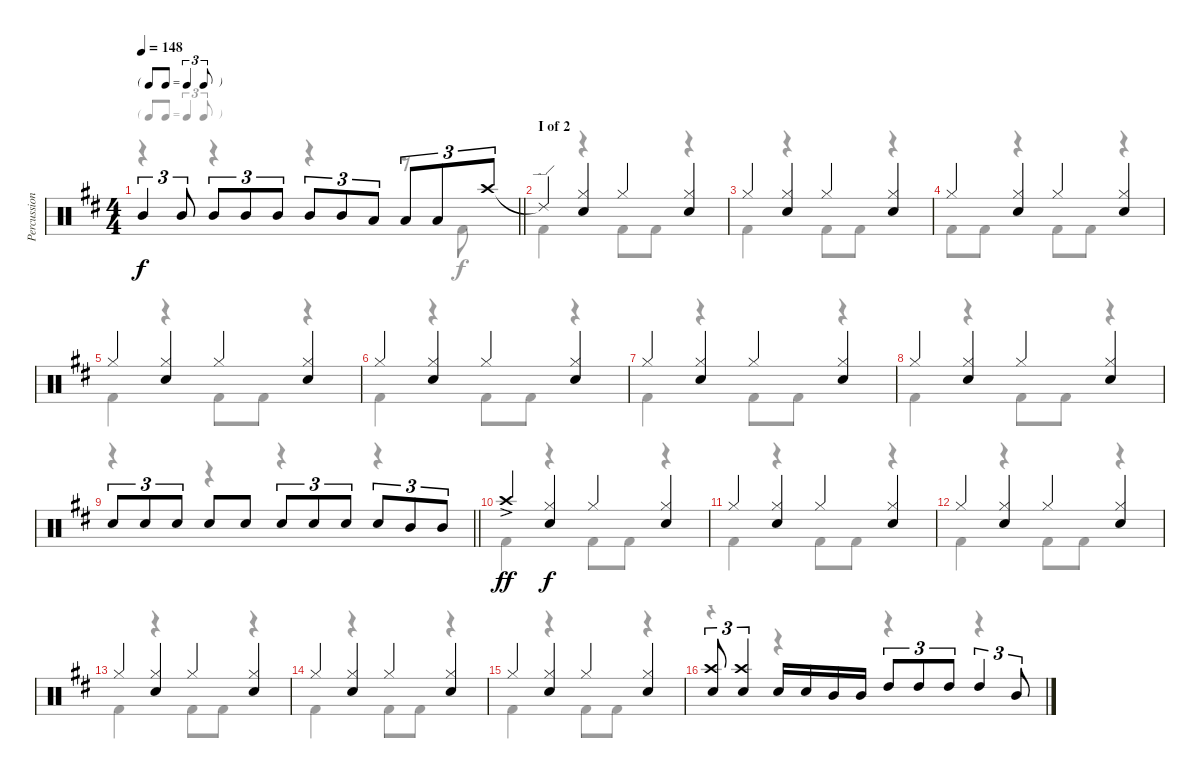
\track ("Percussion" "Percussion") {instrument percussion}
\staff {score}
\articulation defaults
\voice
\ts (4 4)
\tf triplet8th
\tempo 148
\clef neutral
\barLineRight lightlight
\ks bminor "Mid Tom (hit)".4{tu (3 2) dy f} "Mid Tom (hit)".8{tu (3 2)} "Mid Tom (hit)".8{tu (3 2)} "Mid Tom (hit)".8{tu (3 2)} "Mid Tom (hit)".8{tu (3 2)} "Mid Tom (hit)".8{tu (3 2)} "Mid Tom (hit)".8{tu (3 2)} "Low Tom (hit)".8{tu (3 2)} "Low Tom (hit)".8{tu (3 2)} "Low Tom (hit)".8{tu (3 2)} "Crash high (hit)".8{tu (3 2)}
|
\section ("" "I of 2")
"Ride (edge) 2"{t}.4 ("Hi-Hat (closed)" "Snare (hit) 2").4 "Hi-Hat (closed)".4 ("Hi-Hat (closed)" "Snare (hit) 2").4 |
"Hi-Hat (closed)".4 ("Hi-Hat (closed)" "Snare (hit) 2").4 "Hi-Hat (closed)".4 ("Hi-Hat (closed)" "Snare (hit) 2").4 |
"Hi-Hat (closed)".4 ("Hi-Hat (closed)" "Snare (hit) 2").4 "Hi-Hat (closed)".4 ("Hi-Hat (closed)" "Snare (hit) 2").4 |
"Hi-Hat (closed)".4 ("Hi-Hat (closed)" "Snare (hit) 2").4 "Hi-Hat (closed)".4 ("Hi-Hat (closed)" "Snare (hit) 2").4 |
"Hi-Hat (closed)".4 ("Hi-Hat (closed)" "Snare (hit) 2").4 "Hi-Hat (closed)".4 ("Hi-Hat (closed)" "Snare (hit) 2").4 |
"Hi-Hat (closed)".4 ("Hi-Hat (closed)" "Snare (hit) 2").4 "Hi-Hat (closed)".4 ("Hi-Hat (closed)" "Snare (hit) 2").4 |
"Hi-Hat (closed)".4 ("Hi-Hat (closed)" "Snare (hit) 2").4 "Hi-Hat (closed)".4 ("Hi-Hat (closed)" "Snare (hit) 2").4 |
\barLineRight lightlight "Snare (hit) 2".8{tu (3 2)} "Snare (hit) 2".8{tu (3 2)} "Snare (hit) 2".8{tu (3 2)} "Snare (hit) 2".8 "Snare (hit) 2".8 "Snare (hit) 2".8{tu (3 2)} "Snare (hit) 2".8{tu (3 2)} "Snare (hit) 2".8{tu (3 2)} "Snare (hit) 2".8{tu (3 2)} "Mid Tom (hit)".8{tu (3 2)} "Mid Tom (hit)".8{tu (3 2)}
|
"Crash high (hit)"{ac}.4{dy ff} ("Hi-Hat (closed)" "Snare (hit) 2").4{dy f} "Hi-Hat (closed)".4 ("Hi-Hat (closed)" "Snare (hit) 2").4 |
"Hi-Hat (closed)".4 ("Hi-Hat (closed)" "Snare (hit) 2").4 "Hi-Hat (closed)".4 ("Hi-Hat (closed)" "Snare (hit) 2").4 |
"Hi-Hat (closed)".4 ("Hi-Hat (closed)" "Snare (hit) 2").4 "Hi-Hat (closed)".4 ("Hi-Hat (closed)" "Snare (hit) 2").4 |
"Hi-Hat (closed)".4 ("Hi-Hat (closed)" "Snare (hit) 2").4 "Hi-Hat (closed)".4 ("Hi-Hat (closed)" "Snare (hit) 2").4 |
"Hi-Hat (closed)".4 ("Hi-Hat (closed)" "Snare (hit) 2").4 "Hi-Hat (closed)".4 ("Hi-Hat (closed)" "Snare (hit) 2").4 |
"Hi-Hat (closed)".4 ("Hi-Hat (closed)" "Snare (hit) 2").4 "Hi-Hat (closed)".4 ("Hi-Hat (closed)" "Snare (hit) 2").4 |
("Crash high (hit)" "Snare (hit) 2").8{tu (3 2)} ("Crash high (hit)" "Snare (hit) 2").4{tu (3 2)} "Snare (hit) 2".16 "Snare (hit) 2".16 "Mid Tom (hit)".16 "Mid Tom (hit)".16 "High Tom (hit)".8{tu (3 2)} "High Tom (hit)".8{tu (3 2)} "High Tom (hit)".8{tu (3 2)} "High Tom (hit)".4{tu (3 2)} "Mid Tom (hit)".8{tu (3 2)}
\voice
\clef neutral
\ottava regular
\simile none
\barLineRight lightlight
\ks bminor
r.4{dy f} r.4 r.4 r.8 "Kick (hit) 2".8 |
"Kick (hit) 2".4 r.4 "Kick (hit) 2".8 "Kick (hit) 2".8 r.4 |
"Kick (hit) 2".4 r.4 "Kick (hit) 2".8 "Kick (hit) 2".8 r.4 |
"Kick (hit) 2".8 "Kick (hit) 2".8 r.4 "Kick (hit) 2".8 "Kick (hit) 2".8 r.4 |
"Kick (hit) 2".4 r.4 "Kick (hit) 2".8 "Kick (hit) 2".8 r.4 |
"Kick (hit) 2".4 r.4 "Kick (hit) 2".8 "Kick (hit) 2".8 r.4 |
"Kick (hit) 2".4 r.4 "Kick (hit) 2".8 "Kick (hit) 2".8 r.4 |
"Kick (hit) 2".4 r.4 "Kick (hit) 2".8 "Kick (hit) 2".8 r.4 |
\barLineRight lightlight
r.4 r.4 r.4 r.4 |
"Kick (hit) 2".4 r.4 "Kick (hit) 2".8 "Kick (hit) 2".8 r.4 |
"Kick (hit) 2".4 r.4 "Kick (hit) 2".8 "Kick (hit) 2".8 r.4 |
"Kick (hit) 2".4 r.4 "Kick (hit) 2".8 "Kick (hit) 2".8 r.4 |
"Kick (hit) 2".4 r.4 "Kick (hit) 2".8 "Kick (hit) 2".8 r.4 |
"Kick (hit) 2".4 r.4 "Kick (hit) 2".8 "Kick (hit) 2".8 r.4 |
"Kick (hit) 2".4 r.4 "Kick (hit) 2".8 "Kick (hit) 2".8 r.4 |
r.4 r.4 r.4 r.4
